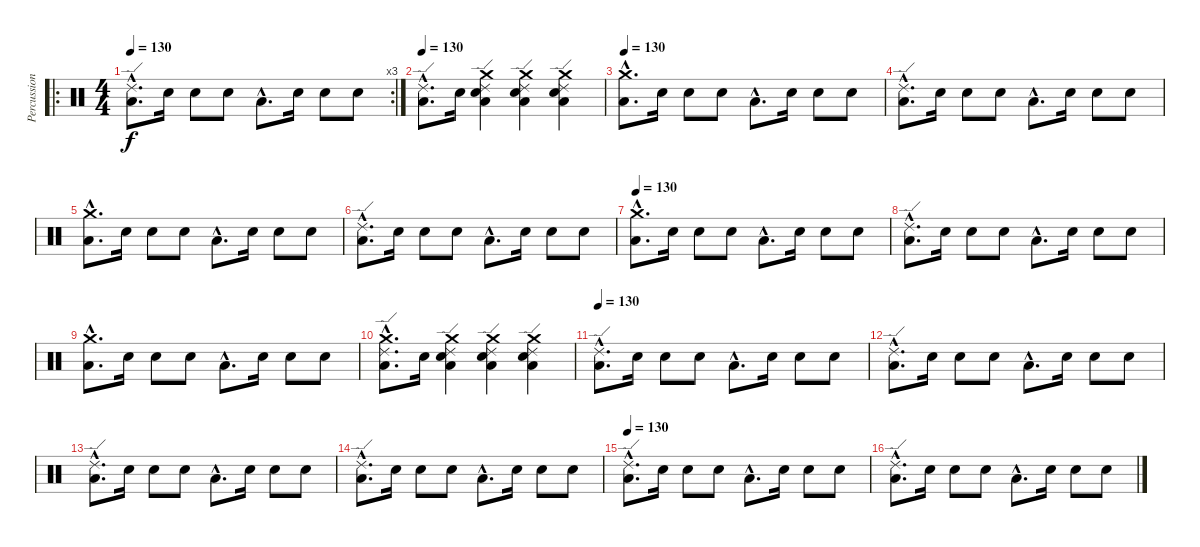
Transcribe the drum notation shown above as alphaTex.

\track ("Percussions" "Percussion") {instrument percussion}
\staff {score}
\articulation defaults
\ro
\rc 3
\ts (4 4)
\tempo 130
\clef neutral
\ks c
("Low Floor Tom (hit)"{hac} "Ride (edge) 2"{hac}).8{d dy f} "Snare (hit) 2".16 "Snare (hit) 2".8 "Snare (hit) 2".8 "Low Floor Tom (hit)"{hac}.8{d} "Snare (hit) 2".16 "Snare (hit) 2".8 "Snare (hit) 2".8 |
\tempo 130
("Low Floor Tom (hit)"{hac} "Ride (edge) 2"{hac}).8{d} "Snare (hit) 2".16 ("Low Floor Tom (hit)" "Snare (hit) 2" "Crash medium (hit)" "Ride (edge) 2").4 ("Low Floor Tom (hit)" "Snare (hit) 2" "Crash medium (hit)" "Ride (edge) 2").4 ("Low Floor Tom (hit)" "Snare (hit) 2" "Crash medium (hit)" "Ride (edge) 2").4 |
\tempo 130
("Low Floor Tom (hit)"{hac} "Crash medium (hit)"{hac}).8{d} "Snare (hit) 2".16 "Snare (hit) 2".8 "Snare (hit) 2".8 "Low Floor Tom (hit)"{hac}.8{d} "Snare (hit) 2".16 "Snare (hit) 2".8 "Snare (hit) 2".8 |
("Low Floor Tom (hit)"{hac} "Ride (edge) 2"{hac}).8{d} "Snare (hit) 2".16 "Snare (hit) 2".8 "Snare (hit) 2".8 "Low Floor Tom (hit)"{hac}.8{d} "Snare (hit) 2".16 "Snare (hit) 2".8 "Snare (hit) 2".8 |
("Low Floor Tom (hit)"{hac} "Crash medium (hit)"{hac}).8{d} "Snare (hit) 2".16 "Snare (hit) 2".8 "Snare (hit) 2".8 "Low Floor Tom (hit)"{hac}.8{d} "Snare (hit) 2".16 "Snare (hit) 2".8 "Snare (hit) 2".8 |
("Low Floor Tom (hit)"{hac} "Ride (edge) 2"{hac}).8{d} "Snare (hit) 2".16 "Snare (hit) 2".8 "Snare (hit) 2".8 "Low Floor Tom (hit)"{hac}.8{d} "Snare (hit) 2".16 "Snare (hit) 2".8 "Snare (hit) 2".8 |
\tempo 130
("Low Floor Tom (hit)"{hac} "Crash medium (hit)"{hac}).8{d} "Snare (hit) 2".16 "Snare (hit) 2".8 "Snare (hit) 2".8 "Low Floor Tom (hit)"{hac}.8{d} "Snare (hit) 2".16 "Snare (hit) 2".8 "Snare (hit) 2".8 |
("Low Floor Tom (hit)"{hac} "Ride (edge) 2"{hac}).8{d} "Snare (hit) 2".16 "Snare (hit) 2".8 "Snare (hit) 2".8 "Low Floor Tom (hit)"{hac}.8{d} "Snare (hit) 2".16 "Snare (hit) 2".8 "Snare (hit) 2".8 |
("Low Floor Tom (hit)"{hac} "Crash medium (hit)"{hac}).8{d} "Snare (hit) 2".16 "Snare (hit) 2".8 "Snare (hit) 2".8 "Low Floor Tom (hit)"{hac}.8{d} "Snare (hit) 2".16 "Snare (hit) 2".8 "Snare (hit) 2".8 |
("Low Floor Tom (hit)"{hac} "Crash medium (hit)"{hac} "Ride (edge) 2"{hac}).8{d} "Snare (hit) 2".16 ("Low Floor Tom (hit)" "Snare (hit) 2" "Crash medium (hit)" "Ride (edge) 2").4 ("Low Floor Tom (hit)" "Snare (hit) 2" "Crash medium (hit)" "Ride (edge) 2").4 ("Low Floor Tom (hit)" "Snare (hit) 2" "Crash medium (hit)" "Ride (edge) 2").4 |
\tempo 130
("Low Floor Tom (hit)"{hac} "Ride (edge) 2"{hac}).8{d} "Snare (hit) 2".16 "Snare (hit) 2".8 "Snare (hit) 2".8 "Low Floor Tom (hit)"{hac}.8{d} "Snare (hit) 2".16 "Snare (hit) 2".8 "Snare (hit) 2".8 |
("Low Floor Tom (hit)"{hac} "Ride (edge) 2"{hac}).8{d} "Snare (hit) 2".16 "Snare (hit) 2".8 "Snare (hit) 2".8 "Low Floor Tom (hit)"{hac}.8{d} "Snare (hit) 2".16 "Snare (hit) 2".8 "Snare (hit) 2".8 |
("Low Floor Tom (hit)"{hac} "Ride (edge) 2"{hac}).8{d} "Snare (hit) 2".16 "Snare (hit) 2".8 "Snare (hit) 2".8 "Low Floor Tom (hit)"{hac}.8{d} "Snare (hit) 2".16 "Snare (hit) 2".8 "Snare (hit) 2".8 |
("Low Floor Tom (hit)"{hac} "Ride (edge) 2"{hac}).8{d} "Snare (hit) 2".16 "Snare (hit) 2".8 "Snare (hit) 2".8 "Low Floor Tom (hit)"{hac}.8{d} "Snare (hit) 2".16 "Snare (hit) 2".8 "Snare (hit) 2".8 |
\tempo 130
("Low Floor Tom (hit)"{hac} "Ride (edge) 2"{hac}).8{d} "Snare (hit) 2".16 "Snare (hit) 2".8 "Snare (hit) 2".8 "Low Floor Tom (hit)"{hac}.8{d} "Snare (hit) 2".16 "Snare (hit) 2".8 "Snare (hit) 2".8 |
("Low Floor Tom (hit)"{hac} "Ride (edge) 2"{hac}).8{d} "Snare (hit) 2".16 "Snare (hit) 2".8 "Snare (hit) 2".8 "Low Floor Tom (hit)"{hac}.8{d} "Snare (hit) 2".16 "Snare (hit) 2".8 "Snare (hit) 2".8
